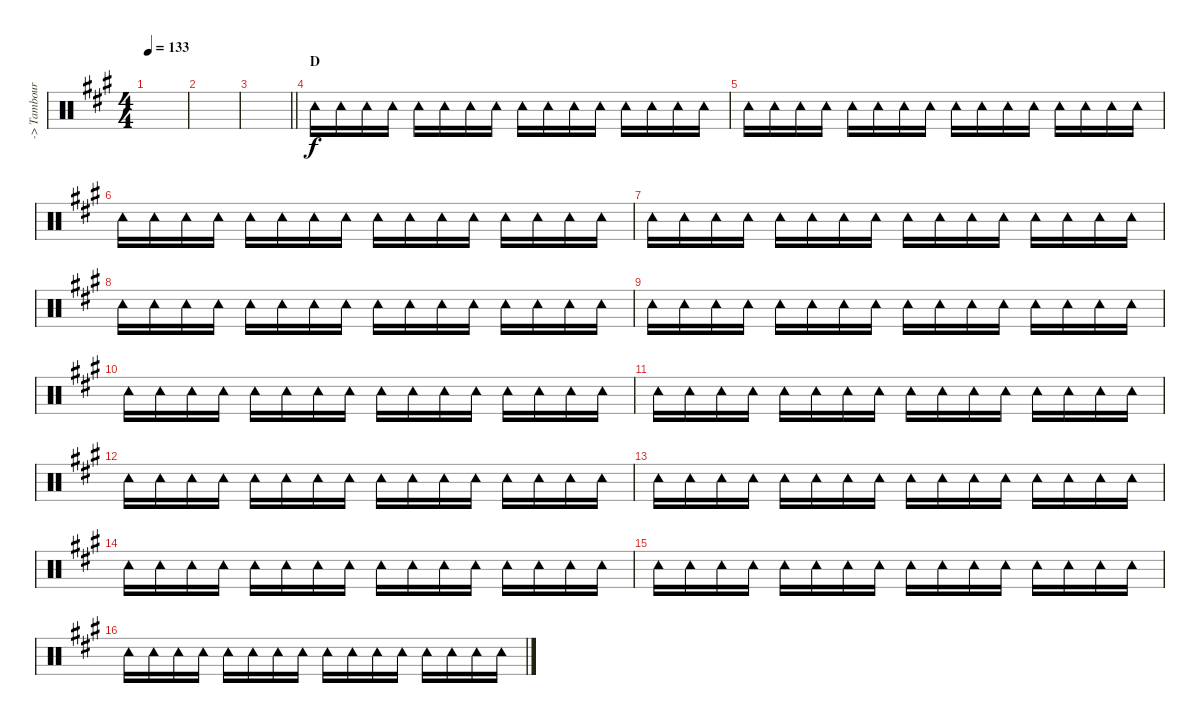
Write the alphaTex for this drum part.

\track ("-> Tambourine" "-> Tambour") {instrument percussion}
\staff {score}
\articulation defaults
\ts (4 4)
\tempo 133
\clef neutral
\ks a
|
|
\barLineRight lightlight
|
\section ("" "D")
"Tambourine (hit)".16 "Tambourine (hit)".16 "Tambourine (hit)".16 "Tambourine (hit)".16 "Tambourine (hit)".16 "Tambourine (hit)".16 "Tambourine (hit)".16 "Tambourine (hit)".16 "Tambourine (hit)".16 "Tambourine (hit)".16 "Tambourine (hit)".16 "Tambourine (hit)".16 "Tambourine (hit)".16 "Tambourine (hit)".16 "Tambourine (hit)".16 "Tambourine (hit)".16 |
"Tambourine (hit)".16 "Tambourine (hit)".16 "Tambourine (hit)".16 "Tambourine (hit)".16 "Tambourine (hit)".16 "Tambourine (hit)".16 "Tambourine (hit)".16 "Tambourine (hit)".16 "Tambourine (hit)".16 "Tambourine (hit)".16 "Tambourine (hit)".16 "Tambourine (hit)".16 "Tambourine (hit)".16 "Tambourine (hit)".16 "Tambourine (hit)".16 "Tambourine (hit)".16 |
"Tambourine (hit)".16 "Tambourine (hit)".16 "Tambourine (hit)".16 "Tambourine (hit)".16 "Tambourine (hit)".16 "Tambourine (hit)".16 "Tambourine (hit)".16 "Tambourine (hit)".16 "Tambourine (hit)".16 "Tambourine (hit)".16 "Tambourine (hit)".16 "Tambourine (hit)".16 "Tambourine (hit)".16 "Tambourine (hit)".16 "Tambourine (hit)".16 "Tambourine (hit)".16 |
"Tambourine (hit)".16 "Tambourine (hit)".16 "Tambourine (hit)".16 "Tambourine (hit)".16 "Tambourine (hit)".16 "Tambourine (hit)".16 "Tambourine (hit)".16 "Tambourine (hit)".16 "Tambourine (hit)".16 "Tambourine (hit)".16 "Tambourine (hit)".16 "Tambourine (hit)".16 "Tambourine (hit)".16 "Tambourine (hit)".16 "Tambourine (hit)".16 "Tambourine (hit)".16 |
"Tambourine (hit)".16 "Tambourine (hit)".16 "Tambourine (hit)".16 "Tambourine (hit)".16 "Tambourine (hit)".16 "Tambourine (hit)".16 "Tambourine (hit)".16 "Tambourine (hit)".16 "Tambourine (hit)".16 "Tambourine (hit)".16 "Tambourine (hit)".16 "Tambourine (hit)".16 "Tambourine (hit)".16 "Tambourine (hit)".16 "Tambourine (hit)".16 "Tambourine (hit)".16 |
"Tambourine (hit)".16 "Tambourine (hit)".16 "Tambourine (hit)".16 "Tambourine (hit)".16 "Tambourine (hit)".16 "Tambourine (hit)".16 "Tambourine (hit)".16 "Tambourine (hit)".16 "Tambourine (hit)".16 "Tambourine (hit)".16 "Tambourine (hit)".16 "Tambourine (hit)".16 "Tambourine (hit)".16 "Tambourine (hit)".16 "Tambourine (hit)".16 "Tambourine (hit)".16 |
"Tambourine (hit)".16 "Tambourine (hit)".16 "Tambourine (hit)".16 "Tambourine (hit)".16 "Tambourine (hit)".16 "Tambourine (hit)".16 "Tambourine (hit)".16 "Tambourine (hit)".16 "Tambourine (hit)".16 "Tambourine (hit)".16 "Tambourine (hit)".16 "Tambourine (hit)".16 "Tambourine (hit)".16 "Tambourine (hit)".16 "Tambourine (hit)".16 "Tambourine (hit)".16 |
"Tambourine (hit)".16 "Tambourine (hit)".16 "Tambourine (hit)".16 "Tambourine (hit)".16 "Tambourine (hit)".16 "Tambourine (hit)".16 "Tambourine (hit)".16 "Tambourine (hit)".16 "Tambourine (hit)".16 "Tambourine (hit)".16 "Tambourine (hit)".16 "Tambourine (hit)".16 "Tambourine (hit)".16 "Tambourine (hit)".16 "Tambourine (hit)".16 "Tambourine (hit)".16 |
"Tambourine (hit)".16 "Tambourine (hit)".16 "Tambourine (hit)".16 "Tambourine (hit)".16 "Tambourine (hit)".16 "Tambourine (hit)".16 "Tambourine (hit)".16 "Tambourine (hit)".16 "Tambourine (hit)".16 "Tambourine (hit)".16 "Tambourine (hit)".16 "Tambourine (hit)".16 "Tambourine (hit)".16 "Tambourine (hit)".16 "Tambourine (hit)".16 "Tambourine (hit)".16 |
"Tambourine (hit)".16 "Tambourine (hit)".16 "Tambourine (hit)".16 "Tambourine (hit)".16 "Tambourine (hit)".16 "Tambourine (hit)".16 "Tambourine (hit)".16 "Tambourine (hit)".16 "Tambourine (hit)".16 "Tambourine (hit)".16 "Tambourine (hit)".16 "Tambourine (hit)".16 "Tambourine (hit)".16 "Tambourine (hit)".16 "Tambourine (hit)".16 "Tambourine (hit)".16 |
"Tambourine (hit)".16 "Tambourine (hit)".16 "Tambourine (hit)".16 "Tambourine (hit)".16 "Tambourine (hit)".16 "Tambourine (hit)".16 "Tambourine (hit)".16 "Tambourine (hit)".16 "Tambourine (hit)".16 "Tambourine (hit)".16 "Tambourine (hit)".16 "Tambourine (hit)".16 "Tambourine (hit)".16 "Tambourine (hit)".16 "Tambourine (hit)".16 "Tambourine (hit)".16 |
"Tambourine (hit)".16 "Tambourine (hit)".16 "Tambourine (hit)".16 "Tambourine (hit)".16 "Tambourine (hit)".16 "Tambourine (hit)".16 "Tambourine (hit)".16 "Tambourine (hit)".16 "Tambourine (hit)".16 "Tambourine (hit)".16 "Tambourine (hit)".16 "Tambourine (hit)".16 "Tambourine (hit)".16 "Tambourine (hit)".16 "Tambourine (hit)".16 "Tambourine (hit)".16 |
"Tambourine (hit)".16 "Tambourine (hit)".16 "Tambourine (hit)".16 "Tambourine (hit)".16 "Tambourine (hit)".16 "Tambourine (hit)".16 "Tambourine (hit)".16 "Tambourine (hit)".16 "Tambourine (hit)".16 "Tambourine (hit)".16 "Tambourine (hit)".16 "Tambourine (hit)".16 "Tambourine (hit)".16 "Tambourine (hit)".16 "Tambourine (hit)".16 "Tambourine (hit)".16
